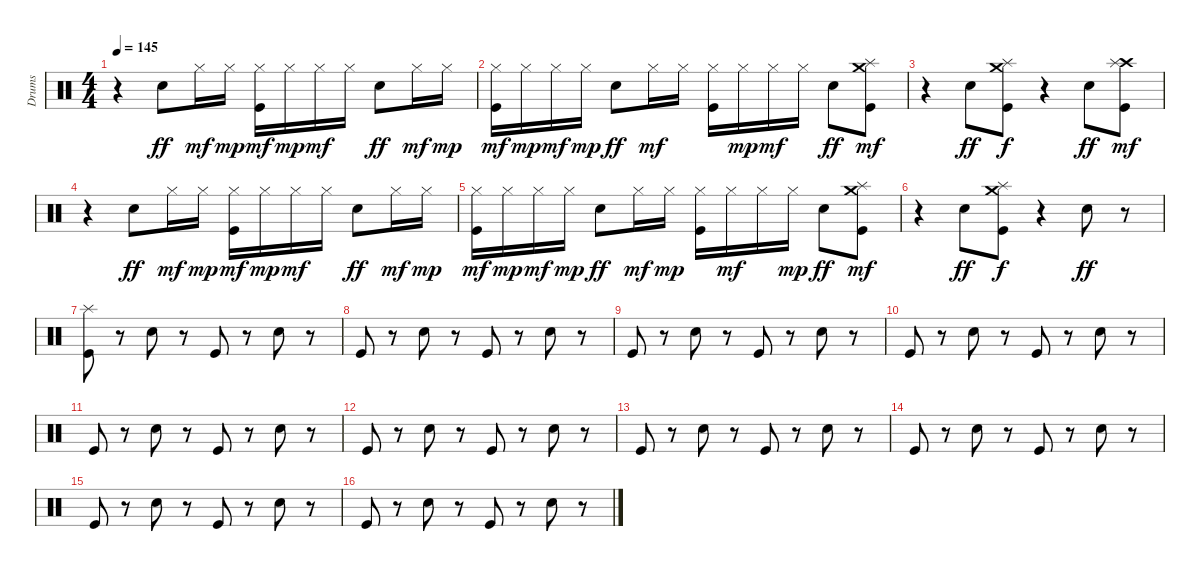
\track ("Drums" "Drums") {instrument percussion}
\staff {score}
\articulation defaults
\ts (4 4)
\tempo 145
\clef neutral
\ks c
r.4{dy mf} "Snare (hit) 2".8{dy ff} "Hi-Hat (closed)".16{dy mf} "Hi-Hat (closed)".16{dy mp} ("Kick (hit)" "Hi-Hat (closed)").16{dy mf} "Hi-Hat (closed)".16{dy mp} "Hi-Hat (closed)".16{dy mf} "Hi-Hat (closed)".16 "Snare (hit) 2".8{dy ff} "Hi-Hat (closed)".16{dy mf} "Hi-Hat (closed)".16{dy mp} |
("Kick (hit)" "Hi-Hat (closed)").16{dy mf} "Hi-Hat (closed)".16{dy mp} "Hi-Hat (closed)".16{dy mf} "Hi-Hat (closed)".16{dy mp} "Snare (hit) 2".8{dy ff} "Hi-Hat (closed)".16{dy mf} "Hi-Hat (closed)".16 ("Kick (hit)" "Hi-Hat (closed)").16 "Hi-Hat (closed)".16{dy mp} "Hi-Hat (closed)".16{dy mf} "Hi-Hat (closed)".16 "Snare (hit) 2".8{dy ff} ("Kick (hit)" "Splash (hit)" "Crash medium (hit)").8{dy mf} |
r.4 "Snare (hit) 2".8{dy ff} ("Kick (hit)" "Splash (hit)" "Crash medium (hit)").8{dy f} r.4 "Snare (hit) 2".8{dy ff} ("Kick (hit)" "Crash high (hit)" "Splash (hit)").8{dy mf} |
r.4 "Snare (hit) 2".8{dy ff} "Hi-Hat (closed)".16{dy mf} "Hi-Hat (closed)".16{dy mp} ("Kick (hit)" "Hi-Hat (closed)").16{dy mf} "Hi-Hat (closed)".16{dy mp} "Hi-Hat (closed)".16{dy mf} "Hi-Hat (closed)".16 "Snare (hit) 2".8{dy ff} "Hi-Hat (closed)".16{dy mf} "Hi-Hat (closed)".16{dy mp} |
("Kick (hit)" "Hi-Hat (closed)").16{dy mf} "Hi-Hat (closed)".16{dy mp} "Hi-Hat (closed)".16{dy mf} "Hi-Hat (closed)".16{dy mp} "Snare (hit) 2".8{dy ff} "Hi-Hat (closed)".16{dy mf} "Hi-Hat (closed)".16{dy mp} ("Kick (hit)" "Hi-Hat (closed)").16 "Hi-Hat (closed)".16{dy mf} "Hi-Hat (closed)".16 "Hi-Hat (closed)".16{dy mp} "Snare (hit) 2".8{dy ff} ("Kick (hit)" "Splash (hit)" "Crash medium (hit)").8{dy mf} |
r.4 "Snare (hit) 2".8{dy ff} ("Kick (hit)" "Splash (hit)" "Crash medium (hit)").8{dy f} r.4 "Snare (hit) 2".8{dy ff} r.8 |
("Kick (hit)" "Splash (hit)").8 r.8 "Snare (hit) 2".8 r.8 "Kick (hit)".8 r.8 "Snare (hit) 2".8 r.8 |
"Kick (hit)".8 r.8 "Snare (hit) 2".8 r.8 "Kick (hit)".8 r.8 "Snare (hit) 2".8 r.8 |
"Kick (hit)".8 r.8 "Snare (hit) 2".8 r.8 "Kick (hit)".8 r.8 "Snare (hit) 2".8 r.8 |
"Kick (hit)".8 r.8 "Snare (hit) 2".8 r.8 "Kick (hit)".8 r.8 "Snare (hit) 2".8 r.8 |
"Kick (hit)".8 r.8 "Snare (hit) 2".8 r.8 "Kick (hit)".8 r.8 "Snare (hit) 2".8 r.8 |
"Kick (hit)".8 r.8 "Snare (hit) 2".8 r.8 "Kick (hit)".8 r.8 "Snare (hit) 2".8 r.8 |
"Kick (hit)".8 r.8 "Snare (hit) 2".8 r.8 "Kick (hit)".8 r.8 "Snare (hit) 2".8 r.8 |
"Kick (hit)".8 r.8 "Snare (hit) 2".8 r.8 "Kick (hit)".8 r.8 "Snare (hit) 2".8 r.8 |
"Kick (hit)".8 r.8 "Snare (hit) 2".8 r.8 "Kick (hit)".8 r.8 "Snare (hit) 2".8 r.8 |
"Kick (hit)".8 r.8 "Snare (hit) 2".8 r.8 "Kick (hit)".8 r.8 "Snare (hit) 2".8 r.8
